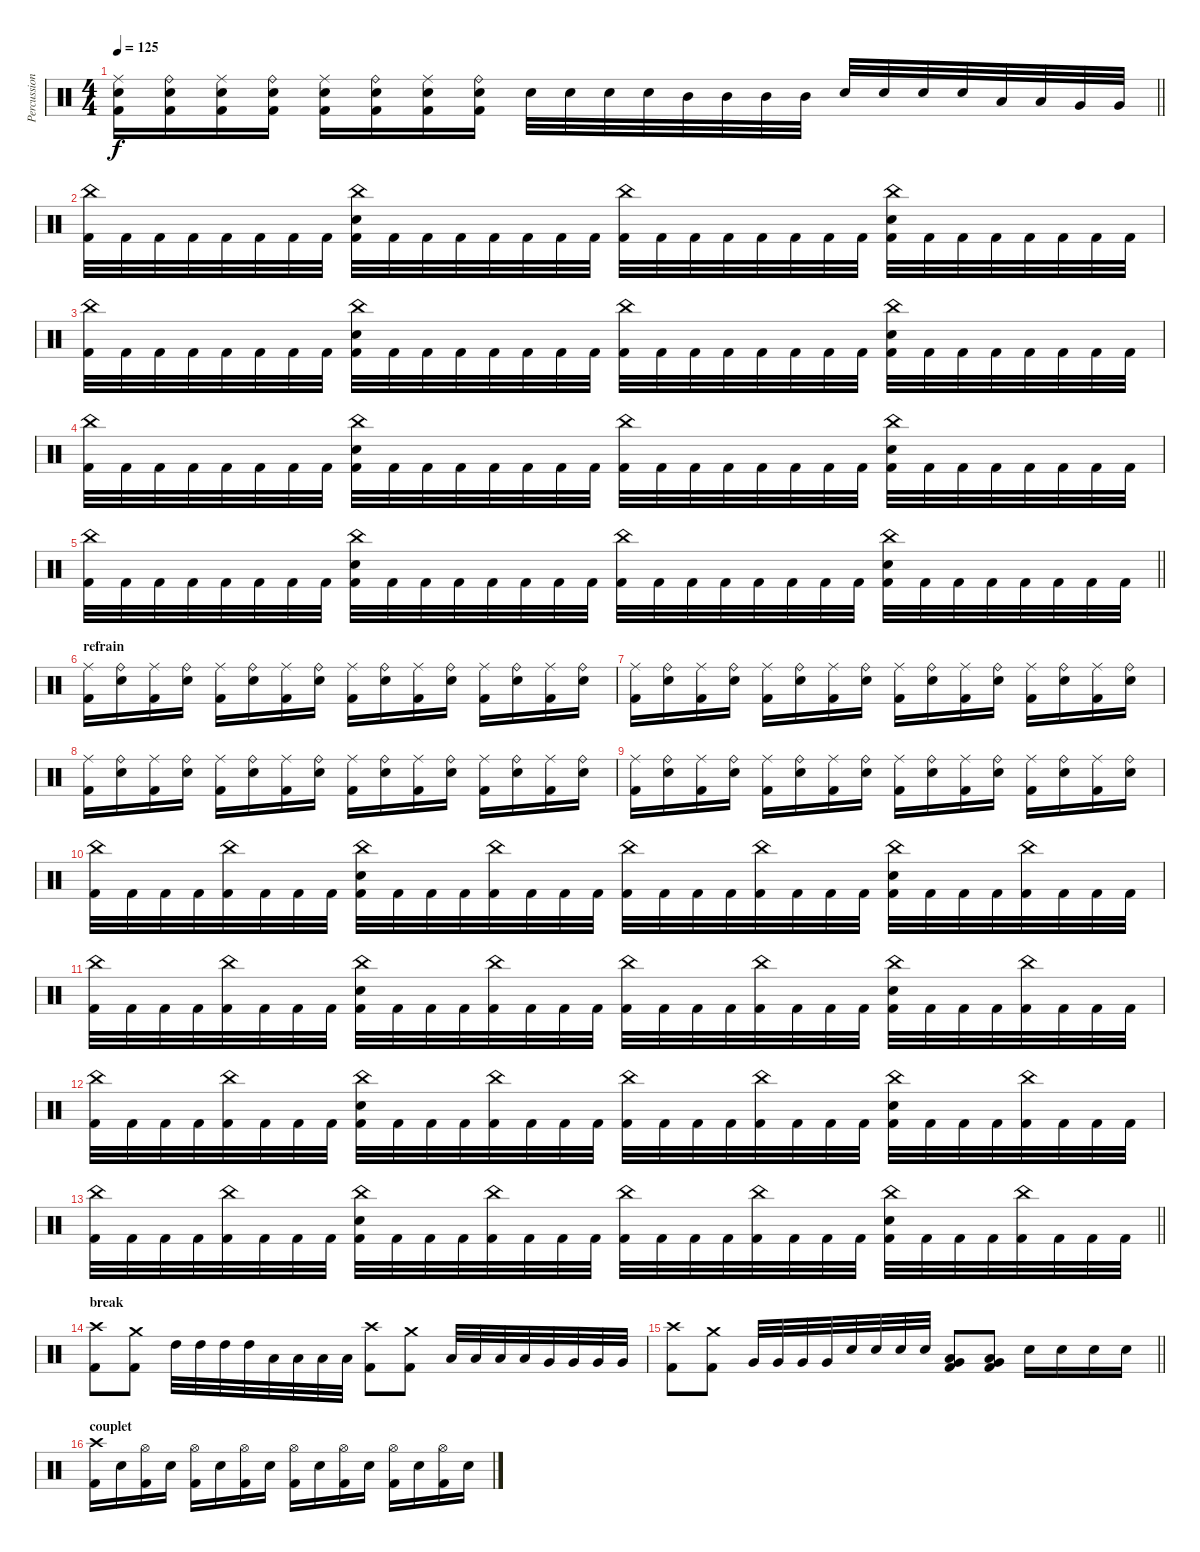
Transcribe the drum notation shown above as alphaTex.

\track ("Percussions" "Percussion") {instrument percussion}
\staff {score}
\articulation defaults
\ts (4 4)
\tempo 125
\clef neutral
\barLineRight lightlight
\ks c
("Kick (hit) 2" "Electric Snare (hit)" "Ride (middle)").16{dy f} ("Kick (hit) 2" "Electric Snare (hit)" "Ride (bell)").16 ("Kick (hit) 2" "Electric Snare (hit)" "Ride (middle)").16 ("Kick (hit) 2" "Electric Snare (hit)" "Ride (bell)").16 ("Kick (hit) 2" "Electric Snare (hit)" "Ride (middle)").16 ("Kick (hit) 2" "Electric Snare (hit)" "Ride (bell)").16 ("Kick (hit) 2" "Electric Snare (hit)" "Ride (middle)").16 ("Kick (hit) 2" "Electric Snare (hit)" "Ride (bell)").16 "Electric Snare (hit)".32 "Electric Snare (hit)".32 "Electric Snare (hit)".32 "Electric Snare (hit)".32 "Mid Tom (hit)".32 "Mid Tom (hit)".32 "Mid Tom (hit)".32 "Mid Tom (hit)".32 "Electric Snare (hit)".32 "Electric Snare (hit)".32 "Electric Snare (hit)".32 "Electric Snare (hit)".32 "Low Tom (hit)".32 "Low Tom (hit)".32 "Very Low Tom (hit)".32 "Very Low Tom (hit)".32 |
("Kick (hit) 2" "China (hit)").32 "Kick (hit) 2".32 "Kick (hit) 2".32 "Kick (hit) 2".32 "Kick (hit) 2".32 "Kick (hit) 2".32 "Kick (hit) 2".32 "Kick (hit) 2".32 ("Kick (hit) 2" "Electric Snare (hit)" "China (hit)").32 "Kick (hit) 2".32 "Kick (hit) 2".32 "Kick (hit) 2".32 "Kick (hit) 2".32 "Kick (hit) 2".32 "Kick (hit) 2".32 "Kick (hit) 2".32 ("Kick (hit) 2" "China (hit)").32 "Kick (hit) 2".32 "Kick (hit) 2".32 "Kick (hit) 2".32 "Kick (hit) 2".32 "Kick (hit) 2".32 "Kick (hit) 2".32 "Kick (hit) 2".32 ("Kick (hit) 2" "Electric Snare (hit)" "China (hit)").32 "Kick (hit) 2".32 "Kick (hit) 2".32 "Kick (hit) 2".32 "Kick (hit) 2".32 "Kick (hit) 2".32 "Kick (hit) 2".32 "Kick (hit) 2".32 |
("Kick (hit) 2" "China (hit)").32 "Kick (hit) 2".32 "Kick (hit) 2".32 "Kick (hit) 2".32 "Kick (hit) 2".32 "Kick (hit) 2".32 "Kick (hit) 2".32 "Kick (hit) 2".32 ("Kick (hit) 2" "Electric Snare (hit)" "China (hit)").32 "Kick (hit) 2".32 "Kick (hit) 2".32 "Kick (hit) 2".32 "Kick (hit) 2".32 "Kick (hit) 2".32 "Kick (hit) 2".32 "Kick (hit) 2".32 ("Kick (hit) 2" "China (hit)").32 "Kick (hit) 2".32 "Kick (hit) 2".32 "Kick (hit) 2".32 "Kick (hit) 2".32 "Kick (hit) 2".32 "Kick (hit) 2".32 "Kick (hit) 2".32 ("Kick (hit) 2" "Electric Snare (hit)" "China (hit)").32 "Kick (hit) 2".32 "Kick (hit) 2".32 "Kick (hit) 2".32 "Kick (hit) 2".32 "Kick (hit) 2".32 "Kick (hit) 2".32 "Kick (hit) 2".32 |
("Kick (hit) 2" "China (hit)").32 "Kick (hit) 2".32 "Kick (hit) 2".32 "Kick (hit) 2".32 "Kick (hit) 2".32 "Kick (hit) 2".32 "Kick (hit) 2".32 "Kick (hit) 2".32 ("Kick (hit) 2" "Electric Snare (hit)" "China (hit)").32 "Kick (hit) 2".32 "Kick (hit) 2".32 "Kick (hit) 2".32 "Kick (hit) 2".32 "Kick (hit) 2".32 "Kick (hit) 2".32 "Kick (hit) 2".32 ("Kick (hit) 2" "China (hit)").32 "Kick (hit) 2".32 "Kick (hit) 2".32 "Kick (hit) 2".32 "Kick (hit) 2".32 "Kick (hit) 2".32 "Kick (hit) 2".32 "Kick (hit) 2".32 ("Kick (hit) 2" "Electric Snare (hit)" "China (hit)").32 "Kick (hit) 2".32 "Kick (hit) 2".32 "Kick (hit) 2".32 "Kick (hit) 2".32 "Kick (hit) 2".32 "Kick (hit) 2".32 "Kick (hit) 2".32 |
\barLineRight lightlight
("Kick (hit) 2" "China (hit)").32 "Kick (hit) 2".32 "Kick (hit) 2".32 "Kick (hit) 2".32 "Kick (hit) 2".32 "Kick (hit) 2".32 "Kick (hit) 2".32 "Kick (hit) 2".32 ("Kick (hit) 2" "Electric Snare (hit)" "China (hit)").32 "Kick (hit) 2".32 "Kick (hit) 2".32 "Kick (hit) 2".32 "Kick (hit) 2".32 "Kick (hit) 2".32 "Kick (hit) 2".32 "Kick (hit) 2".32 ("Kick (hit) 2" "China (hit)").32 "Kick (hit) 2".32 "Kick (hit) 2".32 "Kick (hit) 2".32 "Kick (hit) 2".32 "Kick (hit) 2".32 "Kick (hit) 2".32 "Kick (hit) 2".32 ("Kick (hit) 2" "Electric Snare (hit)" "China (hit)").32 "Kick (hit) 2".32 "Kick (hit) 2".32 "Kick (hit) 2".32 "Kick (hit) 2".32 "Kick (hit) 2".32 "Kick (hit) 2".32 "Kick (hit) 2".32 |
\section ("" "refrain")
("Kick (hit) 2" "Ride (middle)").16 ("Electric Snare (hit)" "Ride (bell)").16 ("Kick (hit) 2" "Ride (middle)").16 ("Electric Snare (hit)" "Ride (bell)").16 ("Kick (hit) 2" "Ride (middle)").16 ("Electric Snare (hit)" "Ride (bell)").16 ("Kick (hit) 2" "Ride (middle)").16 ("Electric Snare (hit)" "Ride (bell)").16 ("Kick (hit) 2" "Ride (middle)").16 ("Electric Snare (hit)" "Ride (bell)").16 ("Kick (hit) 2" "Ride (middle)").16 ("Electric Snare (hit)" "Ride (bell)").16 ("Kick (hit) 2" "Ride (middle)").16 ("Electric Snare (hit)" "Ride (bell)").16 ("Kick (hit) 2" "Ride (middle)").16 ("Electric Snare (hit)" "Ride (bell)").16 |
("Kick (hit) 2" "Ride (middle)").16 ("Electric Snare (hit)" "Ride (bell)").16 ("Kick (hit) 2" "Ride (middle)").16 ("Electric Snare (hit)" "Ride (bell)").16 ("Kick (hit) 2" "Ride (middle)").16 ("Electric Snare (hit)" "Ride (bell)").16 ("Kick (hit) 2" "Ride (middle)").16 ("Electric Snare (hit)" "Ride (bell)").16 ("Kick (hit) 2" "Ride (middle)").16 ("Electric Snare (hit)" "Ride (bell)").16 ("Kick (hit) 2" "Ride (middle)").16 ("Electric Snare (hit)" "Ride (bell)").16 ("Kick (hit) 2" "Ride (middle)").16 ("Electric Snare (hit)" "Ride (bell)").16 ("Kick (hit) 2" "Ride (middle)").16 ("Electric Snare (hit)" "Ride (bell)").16 |
("Kick (hit) 2" "Ride (middle)").16 ("Electric Snare (hit)" "Ride (bell)").16 ("Kick (hit) 2" "Ride (middle)").16 ("Electric Snare (hit)" "Ride (bell)").16 ("Kick (hit) 2" "Ride (middle)").16 ("Electric Snare (hit)" "Ride (bell)").16 ("Kick (hit) 2" "Ride (middle)").16 ("Electric Snare (hit)" "Ride (bell)").16 ("Kick (hit) 2" "Ride (middle)").16 ("Electric Snare (hit)" "Ride (bell)").16 ("Kick (hit) 2" "Ride (middle)").16 ("Electric Snare (hit)" "Ride (bell)").16 ("Kick (hit) 2" "Ride (middle)").16 ("Electric Snare (hit)" "Ride (bell)").16 ("Kick (hit) 2" "Ride (middle)").16 ("Electric Snare (hit)" "Ride (bell)").16 |
("Kick (hit) 2" "Ride (middle)").16 ("Electric Snare (hit)" "Ride (bell)").16 ("Kick (hit) 2" "Ride (middle)").16 ("Electric Snare (hit)" "Ride (bell)").16 ("Kick (hit) 2" "Ride (middle)").16 ("Electric Snare (hit)" "Ride (bell)").16 ("Kick (hit) 2" "Ride (middle)").16 ("Electric Snare (hit)" "Ride (bell)").16 ("Kick (hit) 2" "Ride (middle)").16 ("Electric Snare (hit)" "Ride (bell)").16 ("Kick (hit) 2" "Ride (middle)").16 ("Electric Snare (hit)" "Ride (bell)").16 ("Kick (hit) 2" "Ride (middle)").16 ("Electric Snare (hit)" "Ride (bell)").16 ("Kick (hit) 2" "Ride (middle)").16 ("Electric Snare (hit)" "Ride (bell)").16 |
("Kick (hit) 2" "China (hit)").32 "Kick (hit) 2".32 "Kick (hit) 2".32 "Kick (hit) 2".32 ("Kick (hit) 2" "China (hit)").32 "Kick (hit) 2".32 "Kick (hit) 2".32 "Kick (hit) 2".32 ("Kick (hit) 2" "Electric Snare (hit)" "China (hit)").32 "Kick (hit) 2".32 "Kick (hit) 2".32 "Kick (hit) 2".32 ("Kick (hit) 2" "China (hit)").32 "Kick (hit) 2".32 "Kick (hit) 2".32 "Kick (hit) 2".32 ("Kick (hit) 2" "China (hit)").32 "Kick (hit) 2".32 "Kick (hit) 2".32 "Kick (hit) 2".32 ("Kick (hit) 2" "China (hit)").32 "Kick (hit) 2".32 "Kick (hit) 2".32 "Kick (hit) 2".32 ("Kick (hit) 2" "Electric Snare (hit)" "China (hit)").32 "Kick (hit) 2".32 "Kick (hit) 2".32 "Kick (hit) 2".32 ("Kick (hit) 2" "China (hit)").32 "Kick (hit) 2".32 "Kick (hit) 2".32 "Kick (hit) 2".32 |
("Kick (hit) 2" "China (hit)").32 "Kick (hit) 2".32 "Kick (hit) 2".32 "Kick (hit) 2".32 ("Kick (hit) 2" "China (hit)").32 "Kick (hit) 2".32 "Kick (hit) 2".32 "Kick (hit) 2".32 ("Kick (hit) 2" "Electric Snare (hit)" "China (hit)").32 "Kick (hit) 2".32 "Kick (hit) 2".32 "Kick (hit) 2".32 ("Kick (hit) 2" "China (hit)").32 "Kick (hit) 2".32 "Kick (hit) 2".32 "Kick (hit) 2".32 ("Kick (hit) 2" "China (hit)").32 "Kick (hit) 2".32 "Kick (hit) 2".32 "Kick (hit) 2".32 ("Kick (hit) 2" "China (hit)").32 "Kick (hit) 2".32 "Kick (hit) 2".32 "Kick (hit) 2".32 ("Kick (hit) 2" "Electric Snare (hit)" "China (hit)").32 "Kick (hit) 2".32 "Kick (hit) 2".32 "Kick (hit) 2".32 ("Kick (hit) 2" "China (hit)").32 "Kick (hit) 2".32 "Kick (hit) 2".32 "Kick (hit) 2".32 |
("Kick (hit) 2" "China (hit)").32 "Kick (hit) 2".32 "Kick (hit) 2".32 "Kick (hit) 2".32 ("Kick (hit) 2" "China (hit)").32 "Kick (hit) 2".32 "Kick (hit) 2".32 "Kick (hit) 2".32 ("Kick (hit) 2" "Electric Snare (hit)" "China (hit)").32 "Kick (hit) 2".32 "Kick (hit) 2".32 "Kick (hit) 2".32 ("Kick (hit) 2" "China (hit)").32 "Kick (hit) 2".32 "Kick (hit) 2".32 "Kick (hit) 2".32 ("Kick (hit) 2" "China (hit)").32 "Kick (hit) 2".32 "Kick (hit) 2".32 "Kick (hit) 2".32 ("Kick (hit) 2" "China (hit)").32 "Kick (hit) 2".32 "Kick (hit) 2".32 "Kick (hit) 2".32 ("Kick (hit) 2" "Electric Snare (hit)" "China (hit)").32 "Kick (hit) 2".32 "Kick (hit) 2".32 "Kick (hit) 2".32 ("Kick (hit) 2" "China (hit)").32 "Kick (hit) 2".32 "Kick (hit) 2".32 "Kick (hit) 2".32 |
\barLineRight lightlight
("Kick (hit) 2" "China (hit)").32 "Kick (hit) 2".32 "Kick (hit) 2".32 "Kick (hit) 2".32 ("Kick (hit) 2" "China (hit)").32 "Kick (hit) 2".32 "Kick (hit) 2".32 "Kick (hit) 2".32 ("Kick (hit) 2" "Electric Snare (hit)" "China (hit)").32 "Kick (hit) 2".32 "Kick (hit) 2".32 "Kick (hit) 2".32 ("Kick (hit) 2" "China (hit)").32 "Kick (hit) 2".32 "Kick (hit) 2".32 "Kick (hit) 2".32 ("Kick (hit) 2" "China (hit)").32 "Kick (hit) 2".32 "Kick (hit) 2".32 "Kick (hit) 2".32 ("Kick (hit) 2" "China (hit)").32 "Kick (hit) 2".32 "Kick (hit) 2".32 "Kick (hit) 2".32 ("Kick (hit) 2" "Electric Snare (hit)" "China (hit)").32 "Kick (hit) 2".32 "Kick (hit) 2".32 "Kick (hit) 2".32 ("Kick (hit) 2" "China (hit)").32 "Kick (hit) 2".32 "Kick (hit) 2".32 "Kick (hit) 2".32 |
\section ("" "break")
("Kick (hit) 2" "Crash high (hit)").8 ("Kick (hit) 2" "Crash medium (hit)").8 "High Tom (hit)".32 "High Tom (hit)".32 "High Tom (hit)".32 "High Tom (hit)".32 "Low Tom (hit)".32 "Low Tom (hit)".32 "Low Tom (hit)".32 "Low Tom (hit)".32 ("Kick (hit) 2" "Crash high (hit)").8 ("Kick (hit) 2" "Crash medium (hit)").8 "Low Tom (hit)".32 "Low Tom (hit)".32 "Low Tom (hit)".32 "Low Tom (hit)".32 "Very Low Tom (hit)".32 "Very Low Tom (hit)".32 "Very Low Tom (hit)".32 "Very Low Tom (hit)".32 |
\barLineRight lightlight
("Kick (hit) 2" "Crash high (hit)").8 ("Kick (hit) 2" "Crash medium (hit)").8 "Very Low Tom (hit)".32 "Very Low Tom (hit)".32 "Very Low Tom (hit)".32 "Very Low Tom (hit)".32 "Electric Snare (hit)".32 "Electric Snare (hit)".32 "Electric Snare (hit)".32 "Electric Snare (hit)".32 ("Kick (hit) 2" "Very Low Tom (hit)" "Low Tom (hit)").8 ("Kick (hit) 2" "Very Low Tom (hit)" "Low Tom (hit)").8 "Electric Snare (hit)".16 "Electric Snare (hit)".16 "Electric Snare (hit)".16 "Electric Snare (hit)".16 |
\section ("" "couplet")
("Kick (hit) 2" "Crash high (hit)").16 "Electric Snare (hit)".16 ("Kick (hit) 2" "Hi-Hat (open)").16 "Electric Snare (hit)".16 ("Kick (hit) 2" "Hi-Hat (open)").16 "Electric Snare (hit)".16 ("Kick (hit) 2" "Hi-Hat (open)").16 "Electric Snare (hit)".16 ("Kick (hit) 2" "Hi-Hat (open)").16 "Electric Snare (hit)".16 ("Kick (hit) 2" "Hi-Hat (open)").16 "Electric Snare (hit)".16 ("Kick (hit) 2" "Hi-Hat (open)").16 "Electric Snare (hit)".16 ("Kick (hit) 2" "Hi-Hat (open)").16 "Electric Snare (hit)".16
